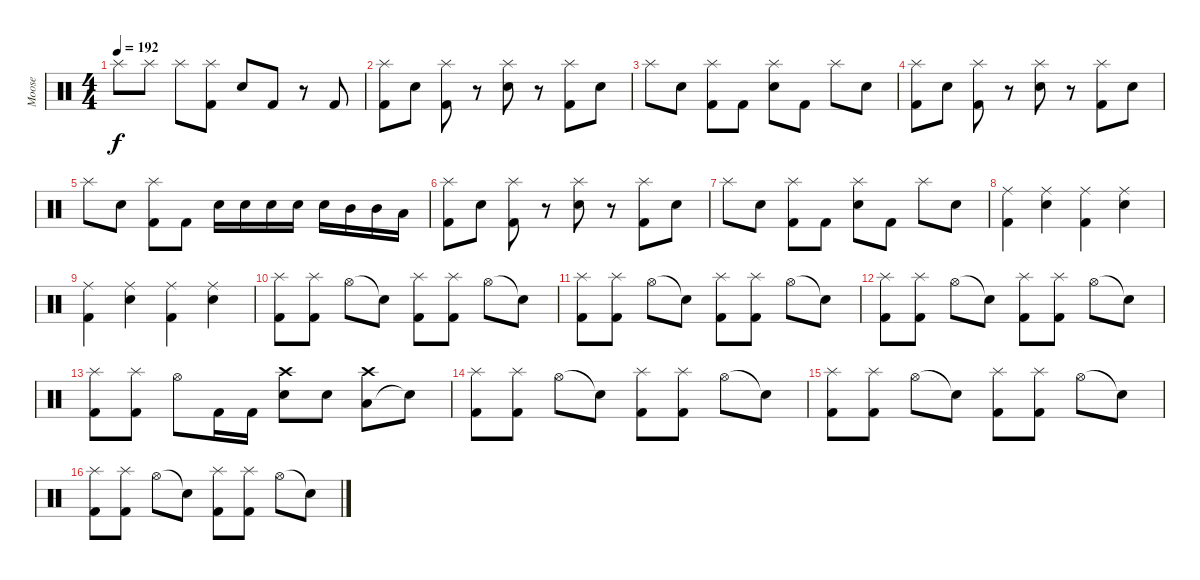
\track ("Moose" "Moose") {instrument percussion}
\staff {score}
\articulation defaults
\ts (4 4)
\tempo 192
\clef neutral
\ks c "Splash (hit)".8{dy f} "Splash (hit)".8 "Splash (hit)".8
("Splash (hit)" "Kick (hit) 2").8 "Snare (hit) 2".8 "Kick (hit) 2".8 r.8 "Kick (hit) 2".8 |
("Kick (hit) 2" "Splash (hit)").8 "Snare (hit) 2".8 ("Kick (hit) 2" "Splash (hit)").8 r.8 ("Electric Snare (hit)" "Splash (hit)").8 r.8 ("Kick (hit) 2" "Splash (hit)").8 "Snare (hit) 2".8 |
"Splash (hit)".8 "Snare (hit) 2".8 ("Kick (hit) 2" "Splash (hit)").8 "Kick (hit) 2".8 ("Electric Snare (hit)" "Splash (hit)").8 "Kick (hit) 2".8 "Splash (hit)".8 "Snare (hit) 2".8 |
("Kick (hit) 2" "Splash (hit)").8 "Snare (hit) 2".8 ("Kick (hit) 2" "Splash (hit)").8 r.8 ("Electric Snare (hit)" "Splash (hit)").8 r.8 ("Kick (hit) 2" "Splash (hit)").8 "Snare (hit) 2".8 |
"Splash (hit)".8 "Snare (hit) 2".8 ("Kick (hit) 2" "Splash (hit)").8 "Kick (hit) 2".8 "Electric Snare (hit)".16 "Electric Snare (hit)".16 "Electric Snare (hit)".16 "Snare (hit) 2".16 "Snare (hit) 2".16 "Mid Tom (hit)".16 "Mid Tom (hit)".16 "Low Tom (hit)".16 |
("Kick (hit) 2" "Splash (hit)").8 "Snare (hit) 2".8 ("Kick (hit) 2" "Splash (hit)").8 r.8 ("Electric Snare (hit)" "Splash (hit)").8 r.8 ("Kick (hit) 2" "Splash (hit)").8 "Snare (hit) 2".8 |
"Splash (hit)".8 "Snare (hit) 2".8 ("Kick (hit) 2" "Splash (hit)").8 "Kick (hit) 2".8 ("Electric Snare (hit)" "Splash (hit)").8 "Kick (hit) 2".8 "Splash (hit)".8 "Snare (hit) 2".8 |
("Kick (hit) 2" "Ride (middle)").4 ("Snare (hit) 2" "Ride (middle)").4 ("Kick (hit) 2" "Ride (middle)").4 ("Snare (hit) 2" "Ride (middle)").4 |
("Kick (hit) 2" "Ride (middle)").4 ("Snare (hit) 2" "Ride (middle)").4 ("Kick (hit) 2" "Ride (middle)").4 ("Snare (hit) 2" "Ride (middle)").4 |
("Kick (hit) 2" "Splash (hit)").8 ("Kick (hit) 2" "Splash (hit)").8 "Hi-Hat (open)".8 "Snare (hit)"{t}.8 ("Kick (hit) 2" "Splash (hit)").8 ("Kick (hit) 2" "Splash (hit)").8 "Hi-Hat (open)".8 "Snare (hit)"{t}.8 |
("Kick (hit) 2" "Splash (hit)").8 ("Kick (hit) 2" "Splash (hit)").8 "Hi-Hat (open)".8 "Snare (hit)"{t}.8 ("Kick (hit) 2" "Splash (hit)").8 ("Kick (hit) 2" "Splash (hit)").8 "Hi-Hat (open)".8 "Snare (hit)"{t}.8 |
("Kick (hit) 2" "Splash (hit)").8 ("Kick (hit) 2" "Splash (hit)").8 "Hi-Hat (open)".8 "Snare (hit)"{t}.8 ("Kick (hit) 2" "Splash (hit)").8 ("Kick (hit) 2" "Splash (hit)").8 "Hi-Hat (open)".8 "Snare (hit)"{t}.8 |
("Kick (hit) 2" "Splash (hit)").8 ("Kick (hit) 2" "Splash (hit)").8 "Hi-Hat (open)".8 "Kick (hit) 2".16 "Kick (hit) 2".16 ("Electric Snare (hit)" "Crash high (hit)").8 "Electric Snare (hit)".8 ("Low Tom (hit)" "Crash high (hit)").8 "Snare (hit)"{t}.8 |
("Kick (hit) 2" "Splash (hit)").8 ("Kick (hit) 2" "Splash (hit)").8 "Hi-Hat (open)".8 "Snare (hit)"{t}.8 ("Kick (hit) 2" "Splash (hit)").8 ("Kick (hit) 2" "Splash (hit)").8 "Hi-Hat (open)".8 "Snare (hit)"{t}.8 |
("Kick (hit) 2" "Splash (hit)").8 ("Kick (hit) 2" "Splash (hit)").8 "Hi-Hat (open)".8 "Snare (hit)"{t}.8 ("Kick (hit) 2" "Splash (hit)").8 ("Kick (hit) 2" "Splash (hit)").8 "Hi-Hat (open)".8 "Snare (hit)"{t}.8 |
("Kick (hit) 2" "Splash (hit)").8 ("Kick (hit) 2" "Splash (hit)").8 "Hi-Hat (open)".8 "Snare (hit)"{t}.8 ("Kick (hit) 2" "Splash (hit)").8 ("Kick (hit) 2" "Splash (hit)").8 "Hi-Hat (open)".8 "Snare (hit)"{t}.8
